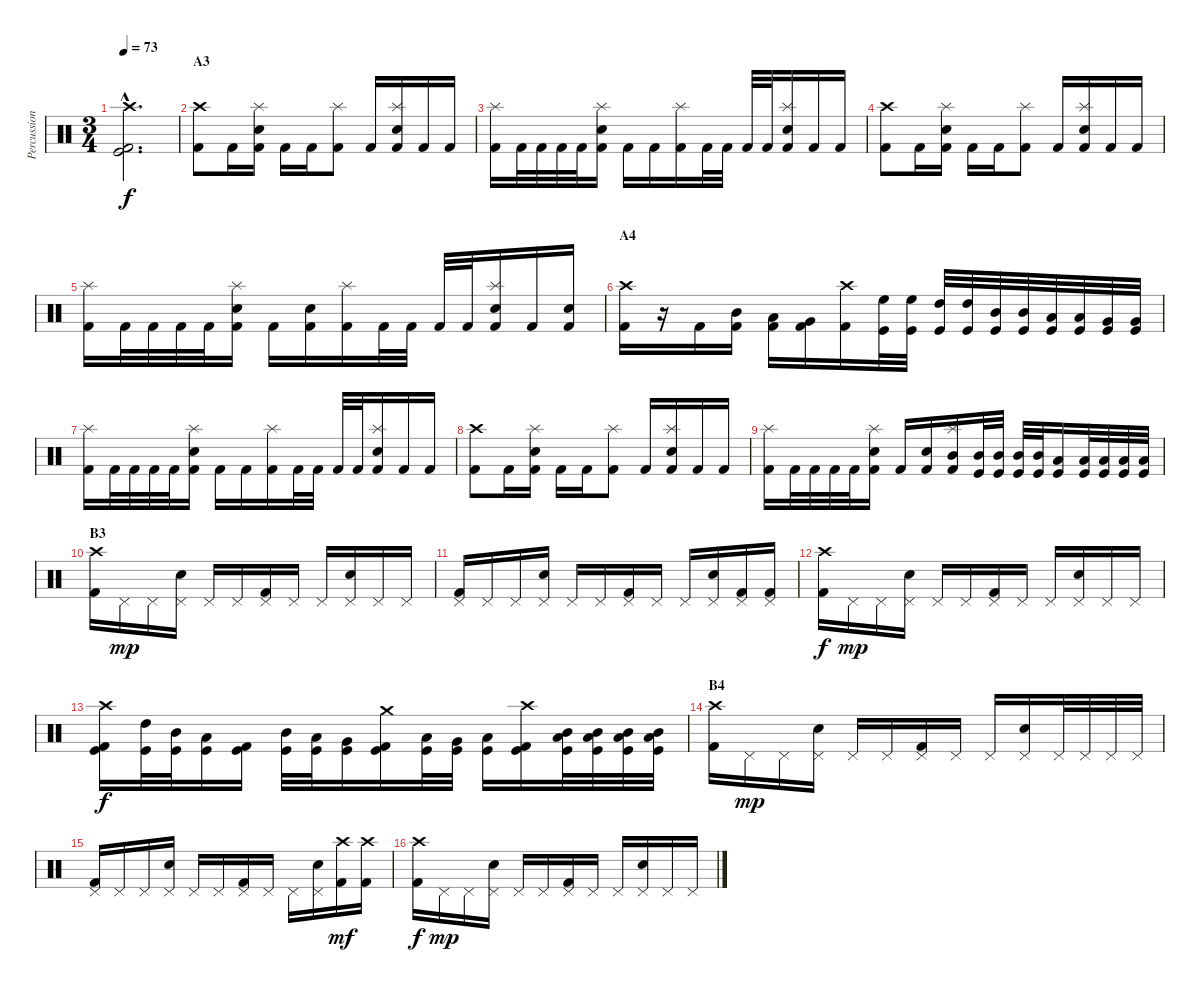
\track ("Percussion" "Percussion") {instrument percussion}
\staff {score}
\articulation defaults
\ts (3 4)
\tempo 73
\clef neutral
\ks c
("Crash high (hit)"{hac} "Kick (hit) 2"{hac} "Kick (hit)"{hac}).2{d dy f} |
\section ("" "A3")
("Crash high (hit)" "Kick (hit) 2").8 "Kick (hit) 2".16 ("Splash (hit)" "Electric Snare (hit)" "Kick (hit) 2").16 "Kick (hit) 2".16 "Kick (hit) 2".16 ("Splash (hit)" "Kick (hit) 2").8 "Kick (hit) 2".16 ("Splash (hit)" "Electric Snare (hit)" "Kick (hit) 2").16 "Kick (hit) 2".16 "Kick (hit) 2".16 |
("Splash (hit)" "Kick (hit) 2").16 "Kick (hit) 2".32 "Kick (hit) 2".32 "Kick (hit) 2".32 "Kick (hit) 2".32 ("Splash (hit)" "Electric Snare (hit)" "Kick (hit) 2").16 "Kick (hit) 2".16 "Kick (hit) 2".16 ("Splash (hit)" "Kick (hit) 2").16 "Kick (hit) 2".32 "Kick (hit) 2".32 "Kick (hit) 2".32 "Kick (hit) 2".32 ("Splash (hit)" "Electric Snare (hit)" "Kick (hit) 2").16 "Kick (hit) 2".16 "Kick (hit) 2".16 |
("Crash high (hit)" "Kick (hit) 2").8 "Kick (hit) 2".16 ("Splash (hit)" "Electric Snare (hit)" "Kick (hit) 2").16 "Kick (hit) 2".16 "Kick (hit) 2".16 ("Splash (hit)" "Kick (hit) 2").8 "Kick (hit) 2".16 ("Splash (hit)" "Electric Snare (hit)" "Kick (hit) 2").16 "Kick (hit) 2".16 "Kick (hit) 2".16 |
("Splash (hit)" "Kick (hit) 2").16 "Kick (hit) 2".32 "Kick (hit) 2".32 "Kick (hit) 2".32 "Kick (hit) 2".32 ("Splash (hit)" "Electric Snare (hit)" "Kick (hit) 2").16 "Kick (hit) 2".16 ("Electric Snare (hit)" "Kick (hit) 2").16 ("Splash (hit)" "Kick (hit) 2").16 "Kick (hit) 2".32 "Kick (hit) 2".32 "Kick (hit) 2".32 "Kick (hit) 2".32 ("Splash (hit)" "Electric Snare (hit)" "Kick (hit) 2").16 "Kick (hit) 2".16 ("Electric Snare (hit)" "Kick (hit) 2").16 |
\section ("" "A4")
("Crash high (hit)" "Kick (hit) 2").16 r.16 "Kick (hit) 2".16 ("Mid Tom (hit)" "Kick (hit) 2").16 ("Low Tom (hit)" "Kick (hit) 2").16 ("Very Low Tom (hit)" "Kick (hit) 2").16 ("Crash high (hit)" "Kick (hit) 2").16 ("High Floor Tom (hit)" "Kick (hit)").32 ("High Floor Tom (hit)" "Kick (hit)").32 ("High Tom (hit)" "Kick (hit)").32 ("High Tom (hit)" "Kick (hit)").32 ("Mid Tom (hit)" "Kick (hit)").32 ("Mid Tom (hit)" "Kick (hit)").32 ("Low Tom (hit)" "Kick (hit)").32 ("Low Tom (hit)" "Kick (hit)").32 ("Very Low Tom (hit)" "Kick (hit)").32 ("Very Low Tom (hit)" "Kick (hit)").32 |
("Splash (hit)" "Kick (hit) 2").16 "Kick (hit) 2".32 "Kick (hit) 2".32 "Kick (hit) 2".32 "Kick (hit) 2".32 ("Splash (hit)" "Electric Snare (hit)" "Kick (hit) 2").16 "Kick (hit) 2".16 "Kick (hit) 2".16 ("Splash (hit)" "Kick (hit) 2").16 "Kick (hit) 2".32 "Kick (hit) 2".32 "Kick (hit) 2".32 "Kick (hit) 2".32 ("Splash (hit)" "Electric Snare (hit)" "Kick (hit) 2").16 "Kick (hit) 2".16 "Kick (hit) 2".16 |
("Crash high (hit)" "Kick (hit) 2").8 "Kick (hit) 2".16 ("Splash (hit)" "Electric Snare (hit)" "Kick (hit) 2").16 "Kick (hit) 2".16 "Kick (hit) 2".16 ("Splash (hit)" "Kick (hit) 2").8 "Kick (hit) 2".16 ("Splash (hit)" "Electric Snare (hit)" "Kick (hit) 2").16 "Kick (hit) 2".16 "Kick (hit) 2".16 |
("Splash (hit)" "Kick (hit) 2").16 "Kick (hit) 2".32 "Kick (hit) 2".32 "Kick (hit) 2".32 "Kick (hit) 2".32 ("Splash (hit)" "Electric Snare (hit)" "Kick (hit) 2").16 "Kick (hit) 2".16 ("Electric Snare (hit)" "Kick (hit) 2").16 ("Splash (hit)" "Mid Tom (hit)" "Kick (hit) 2").16 ("Mid Tom (hit)" "Kick (hit)").32 ("Mid Tom (hit)" "Kick (hit)").32 ("Mid Tom (hit)" "Kick (hit)").32 ("Mid Tom (hit)" "Kick (hit)").32 ("Low Tom (hit)" "Kick (hit)").16 ("Low Tom (hit)" "Kick (hit)").32 ("Low Tom (hit)" "Kick (hit)").32 ("Low Tom (hit)" "Kick (hit)").32 ("Low Tom (hit)" "Kick (hit)").32 |
\section ("" "B3")
("Crash high (hit)" "Kick (hit) 2").16 "Pedal Hi-Hat (hit)".16{dy mp} "Pedal Hi-Hat (hit)".16 ("Pedal Hi-Hat (hit)" "Electric Snare (hit)").16 "Pedal Hi-Hat (hit)".16 "Pedal Hi-Hat (hit)".16 ("Pedal Hi-Hat (hit)" "Kick (hit) 2").16 "Pedal Hi-Hat (hit)".16 "Pedal Hi-Hat (hit)".16 ("Pedal Hi-Hat (hit)" "Electric Snare (hit)").16 "Pedal Hi-Hat (hit)".16 "Pedal Hi-Hat (hit)".16 |
("Pedal Hi-Hat (hit)" "Kick (hit) 2").16 "Pedal Hi-Hat (hit)".16 "Pedal Hi-Hat (hit)".16 ("Pedal Hi-Hat (hit)" "Electric Snare (hit)").16 "Pedal Hi-Hat (hit)".16 "Pedal Hi-Hat (hit)".16 ("Pedal Hi-Hat (hit)" "Kick (hit) 2").16 "Pedal Hi-Hat (hit)".16 "Pedal Hi-Hat (hit)".16 ("Pedal Hi-Hat (hit)" "Electric Snare (hit)").16 ("Pedal Hi-Hat (hit)" "Kick (hit) 2").16 ("Pedal Hi-Hat (hit)" "Kick (hit) 2").16 |
("Crash high (hit)" "Kick (hit) 2").16{dy f} "Pedal Hi-Hat (hit)".16{dy mp} "Pedal Hi-Hat (hit)".16 ("Pedal Hi-Hat (hit)" "Electric Snare (hit)").16 "Pedal Hi-Hat (hit)".16 "Pedal Hi-Hat (hit)".16 ("Pedal Hi-Hat (hit)" "Kick (hit) 2").16 "Pedal Hi-Hat (hit)".16 "Pedal Hi-Hat (hit)".16 ("Pedal Hi-Hat (hit)" "Electric Snare (hit)").16 "Pedal Hi-Hat (hit)".16 "Pedal Hi-Hat (hit)".16 |
("Crash high (hit)" "Kick (hit) 2" "Kick (hit)").16{dy f} ("High Tom (hit)" "Kick (hit)").32 ("Mid Tom (hit)" "Kick (hit)").32 ("Low Tom (hit)" "Kick (hit)").16 ("Kick (hit) 2" "Kick (hit)").16 ("Mid Tom (hit)" "Kick (hit)").32 ("Low Tom (hit)" "Kick (hit)").32 ("Very Low Tom (hit)" "Kick (hit)").16 ("Crash medium (hit)" "Kick (hit) 2" "Kick (hit)").16 ("Low Tom (hit)" "Kick (hit)").32 ("Very Low Tom (hit)" "Kick (hit)").32 ("Low Floor Tom (hit)" "Kick (hit)").16 ("Crash high (hit)" "Kick (hit) 2" "Kick (hit)").16 ("Mid Tom (hit)" "Low Tom (hit)" "Kick (hit)").32 ("Mid Tom (hit)" "Low Tom (hit)" "Kick (hit)").32 ("Mid Tom (hit)" "Low Tom (hit)" "Kick (hit)").32 ("Mid Tom (hit)" "Low Tom (hit)" "Kick (hit)").32 |
\section ("" "B4")
("Crash high (hit)" "Kick (hit) 2").16 "Pedal Hi-Hat (hit)".16{dy mp} "Pedal Hi-Hat (hit)".16 ("Pedal Hi-Hat (hit)" "Electric Snare (hit)").16 "Pedal Hi-Hat (hit)".16 "Pedal Hi-Hat (hit)".16 ("Pedal Hi-Hat (hit)" "Kick (hit) 2").16 "Pedal Hi-Hat (hit)".16 "Pedal Hi-Hat (hit)".16 ("Pedal Hi-Hat (hit)" "Electric Snare (hit)").16 "Pedal Hi-Hat (hit)".32 "Pedal Hi-Hat (hit)".32 "Pedal Hi-Hat (hit)".32 "Pedal Hi-Hat (hit)".32 |
("Pedal Hi-Hat (hit)" "Kick (hit) 2").16 "Pedal Hi-Hat (hit)".16 "Pedal Hi-Hat (hit)".16 ("Pedal Hi-Hat (hit)" "Electric Snare (hit)").16 "Pedal Hi-Hat (hit)".16 "Pedal Hi-Hat (hit)".16 ("Pedal Hi-Hat (hit)" "Kick (hit) 2").16 "Pedal Hi-Hat (hit)".16 "Pedal Hi-Hat (hit)".16 ("Pedal Hi-Hat (hit)" "Electric Snare (hit)").16 ("Crash high (hit)" "Kick (hit) 2").16{dy mf} ("Crash high (hit)" "Kick (hit) 2").16 |
("Crash high (hit)" "Kick (hit) 2").16{dy f} "Pedal Hi-Hat (hit)".16{dy mp} "Pedal Hi-Hat (hit)".16 ("Pedal Hi-Hat (hit)" "Electric Snare (hit)").16 "Pedal Hi-Hat (hit)".16 "Pedal Hi-Hat (hit)".16 ("Pedal Hi-Hat (hit)" "Kick (hit) 2").16 "Pedal Hi-Hat (hit)".16 "Pedal Hi-Hat (hit)".16 ("Pedal Hi-Hat (hit)" "Electric Snare (hit)").16 "Pedal Hi-Hat (hit)".16 "Pedal Hi-Hat (hit)".16
